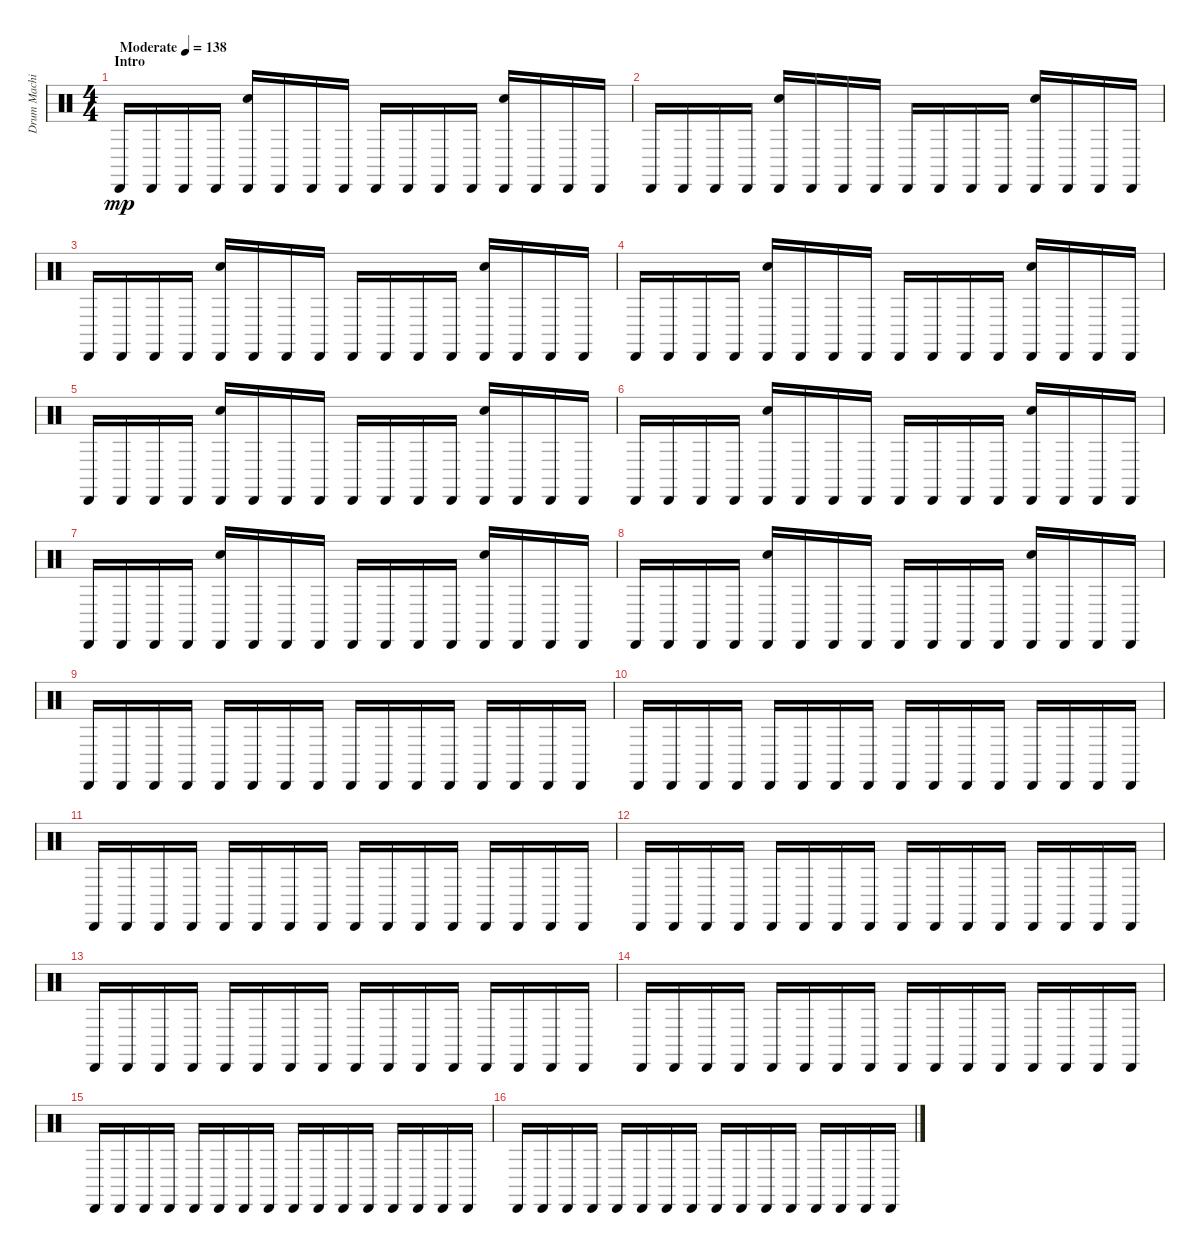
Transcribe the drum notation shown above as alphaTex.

\track ("Drum Machine" "Drum Machi") {instrument percussion}
\staff {score}
\articulation defaults
\ts (4 4)
\section ("" "Intro")
\tempo (138 "Moderate")
\clef neutral
\ks c "Cabasa (hit)".16{dy mp} "Cabasa (hit)".16 "Cabasa (hit)".16 "Cabasa (hit)".16
("Cabasa (hit)" "Hand Clap (hit)").16 "Cabasa (hit)".16 "Cabasa (hit)".16 "Cabasa (hit)".16 "Cabasa (hit)".16 "Cabasa (hit)".16 "Cabasa (hit)".16 "Cabasa (hit)".16 ("Cabasa (hit)" "Hand Clap (hit)").16 "Cabasa (hit)".16 "Cabasa (hit)".16 "Cabasa (hit)".16 |
"Cabasa (hit)".16 "Cabasa (hit)".16 "Cabasa (hit)".16 "Cabasa (hit)".16 ("Cabasa (hit)" "Hand Clap (hit)").16 "Cabasa (hit)".16 "Cabasa (hit)".16 "Cabasa (hit)".16 "Cabasa (hit)".16 "Cabasa (hit)".16 "Cabasa (hit)".16 "Cabasa (hit)".16 ("Cabasa (hit)" "Hand Clap (hit)").16 "Cabasa (hit)".16 "Cabasa (hit)".16 "Cabasa (hit)".16 |
"Cabasa (hit)".16 "Cabasa (hit)".16 "Cabasa (hit)".16 "Cabasa (hit)".16 ("Cabasa (hit)" "Hand Clap (hit)").16 "Cabasa (hit)".16 "Cabasa (hit)".16 "Cabasa (hit)".16 "Cabasa (hit)".16 "Cabasa (hit)".16 "Cabasa (hit)".16 "Cabasa (hit)".16 ("Cabasa (hit)" "Hand Clap (hit)").16 "Cabasa (hit)".16 "Cabasa (hit)".16 "Cabasa (hit)".16 |
"Cabasa (hit)".16 "Cabasa (hit)".16 "Cabasa (hit)".16 "Cabasa (hit)".16 ("Cabasa (hit)" "Hand Clap (hit)").16 "Cabasa (hit)".16 "Cabasa (hit)".16 "Cabasa (hit)".16 "Cabasa (hit)".16 "Cabasa (hit)".16 "Cabasa (hit)".16 "Cabasa (hit)".16 ("Cabasa (hit)" "Hand Clap (hit)").16 "Cabasa (hit)".16 "Cabasa (hit)".16 "Cabasa (hit)".16 |
"Cabasa (hit)".16 "Cabasa (hit)".16 "Cabasa (hit)".16 "Cabasa (hit)".16 ("Cabasa (hit)" "Hand Clap (hit)").16 "Cabasa (hit)".16 "Cabasa (hit)".16 "Cabasa (hit)".16 "Cabasa (hit)".16 "Cabasa (hit)".16 "Cabasa (hit)".16 "Cabasa (hit)".16 ("Cabasa (hit)" "Hand Clap (hit)").16 "Cabasa (hit)".16 "Cabasa (hit)".16 "Cabasa (hit)".16 |
"Cabasa (hit)".16 "Cabasa (hit)".16 "Cabasa (hit)".16 "Cabasa (hit)".16 ("Cabasa (hit)" "Hand Clap (hit)").16 "Cabasa (hit)".16 "Cabasa (hit)".16 "Cabasa (hit)".16 "Cabasa (hit)".16 "Cabasa (hit)".16 "Cabasa (hit)".16 "Cabasa (hit)".16 ("Cabasa (hit)" "Hand Clap (hit)").16 "Cabasa (hit)".16 "Cabasa (hit)".16 "Cabasa (hit)".16 |
"Cabasa (hit)".16 "Cabasa (hit)".16 "Cabasa (hit)".16 "Cabasa (hit)".16 ("Cabasa (hit)" "Hand Clap (hit)").16 "Cabasa (hit)".16 "Cabasa (hit)".16 "Cabasa (hit)".16 "Cabasa (hit)".16 "Cabasa (hit)".16 "Cabasa (hit)".16 "Cabasa (hit)".16 ("Cabasa (hit)" "Hand Clap (hit)").16 "Cabasa (hit)".16 "Cabasa (hit)".16 "Cabasa (hit)".16 |
"Cabasa (hit)".16 "Cabasa (hit)".16 "Cabasa (hit)".16 "Cabasa (hit)".16 ("Cabasa (hit)" "Hand Clap (hit)").16 "Cabasa (hit)".16 "Cabasa (hit)".16 "Cabasa (hit)".16 "Cabasa (hit)".16 "Cabasa (hit)".16 "Cabasa (hit)".16 "Cabasa (hit)".16 ("Cabasa (hit)" "Hand Clap (hit)").16 "Cabasa (hit)".16 "Cabasa (hit)".16 "Cabasa (hit)".16 |
"Cabasa (hit)".16 "Cabasa (hit)".16 "Cabasa (hit)".16 "Cabasa (hit)".16 "Cabasa (hit)".16 "Cabasa (hit)".16 "Cabasa (hit)".16 "Cabasa (hit)".16 "Cabasa (hit)".16 "Cabasa (hit)".16 "Cabasa (hit)".16 "Cabasa (hit)".16 "Cabasa (hit)".16 "Cabasa (hit)".16 "Cabasa (hit)".16 "Cabasa (hit)".16 |
"Cabasa (hit)".16 "Cabasa (hit)".16 "Cabasa (hit)".16 "Cabasa (hit)".16 "Cabasa (hit)".16 "Cabasa (hit)".16 "Cabasa (hit)".16 "Cabasa (hit)".16 "Cabasa (hit)".16 "Cabasa (hit)".16 "Cabasa (hit)".16 "Cabasa (hit)".16 "Cabasa (hit)".16 "Cabasa (hit)".16 "Cabasa (hit)".16 "Cabasa (hit)".16 |
"Cabasa (hit)".16 "Cabasa (hit)".16 "Cabasa (hit)".16 "Cabasa (hit)".16 "Cabasa (hit)".16 "Cabasa (hit)".16 "Cabasa (hit)".16 "Cabasa (hit)".16 "Cabasa (hit)".16 "Cabasa (hit)".16 "Cabasa (hit)".16 "Cabasa (hit)".16 "Cabasa (hit)".16 "Cabasa (hit)".16 "Cabasa (hit)".16 "Cabasa (hit)".16 |
"Cabasa (hit)".16 "Cabasa (hit)".16 "Cabasa (hit)".16 "Cabasa (hit)".16 "Cabasa (hit)".16 "Cabasa (hit)".16 "Cabasa (hit)".16 "Cabasa (hit)".16 "Cabasa (hit)".16 "Cabasa (hit)".16 "Cabasa (hit)".16 "Cabasa (hit)".16 "Cabasa (hit)".16 "Cabasa (hit)".16 "Cabasa (hit)".16 "Cabasa (hit)".16 |
"Cabasa (hit)".16 "Cabasa (hit)".16 "Cabasa (hit)".16 "Cabasa (hit)".16 "Cabasa (hit)".16 "Cabasa (hit)".16 "Cabasa (hit)".16 "Cabasa (hit)".16 "Cabasa (hit)".16 "Cabasa (hit)".16 "Cabasa (hit)".16 "Cabasa (hit)".16 "Cabasa (hit)".16 "Cabasa (hit)".16 "Cabasa (hit)".16 "Cabasa (hit)".16 |
"Cabasa (hit)".16 "Cabasa (hit)".16 "Cabasa (hit)".16 "Cabasa (hit)".16 "Cabasa (hit)".16 "Cabasa (hit)".16 "Cabasa (hit)".16 "Cabasa (hit)".16 "Cabasa (hit)".16 "Cabasa (hit)".16 "Cabasa (hit)".16 "Cabasa (hit)".16 "Cabasa (hit)".16 "Cabasa (hit)".16 "Cabasa (hit)".16 "Cabasa (hit)".16 |
"Cabasa (hit)".16 "Cabasa (hit)".16 "Cabasa (hit)".16 "Cabasa (hit)".16 "Cabasa (hit)".16 "Cabasa (hit)".16 "Cabasa (hit)".16 "Cabasa (hit)".16 "Cabasa (hit)".16 "Cabasa (hit)".16 "Cabasa (hit)".16 "Cabasa (hit)".16 "Cabasa (hit)".16 "Cabasa (hit)".16 "Cabasa (hit)".16 "Cabasa (hit)".16 |
"Cabasa (hit)".16 "Cabasa (hit)".16 "Cabasa (hit)".16 "Cabasa (hit)".16 "Cabasa (hit)".16 "Cabasa (hit)".16 "Cabasa (hit)".16 "Cabasa (hit)".16 "Cabasa (hit)".16 "Cabasa (hit)".16 "Cabasa (hit)".16 "Cabasa (hit)".16 "Cabasa (hit)".16 "Cabasa (hit)".16 "Cabasa (hit)".16 "Cabasa (hit)".16
